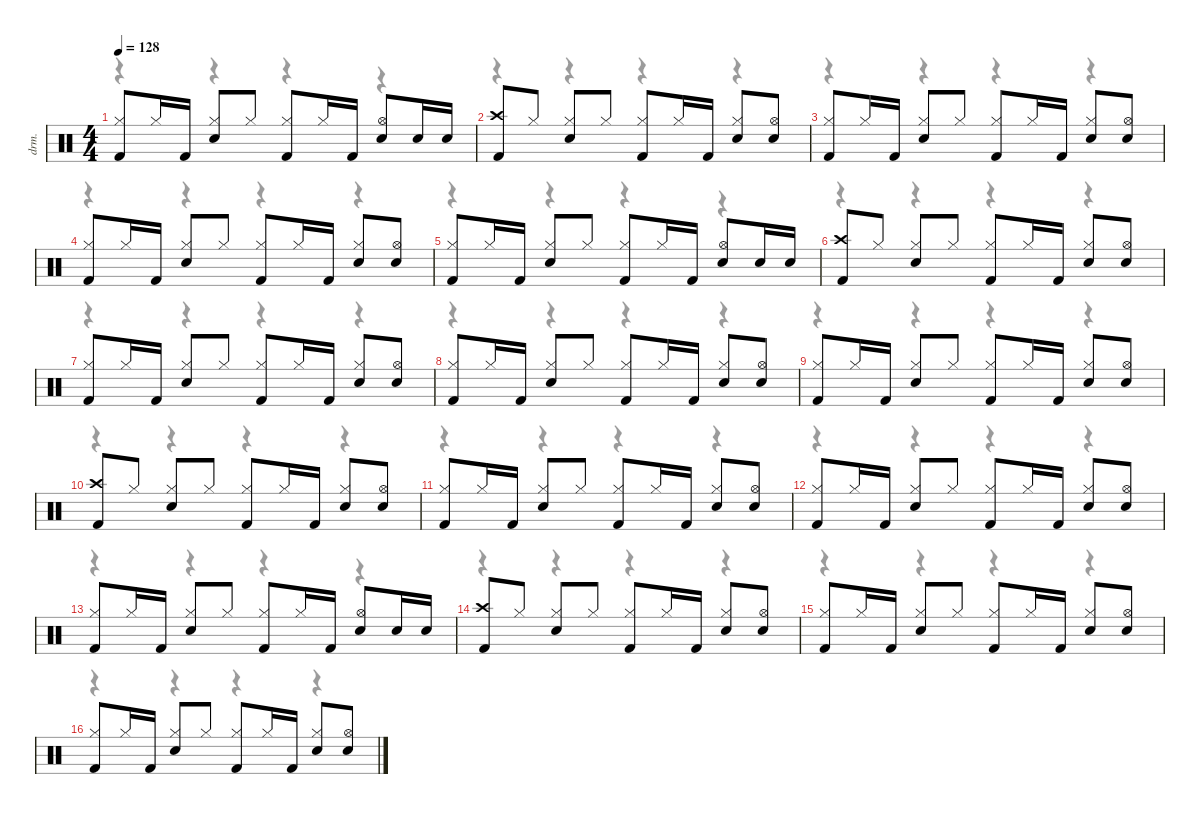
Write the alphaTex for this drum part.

\defaultSystemsLayout 4
\hideDynamics
\bracketExtendMode nobrackets
\track ("Drums" "drm.") {instrument percussion}
\staff {score}
\articulation defaults
\voice
\ts (4 4)
\tempo 128
\clef neutral
\ks c
("Kick (hit) 2" "Hi-Hat (closed)").8{dy fff} "Hi-Hat (closed)".16{dy p} "Kick (hit) 2".16{dy fff} ("Snare (hit) 2" "Hi-Hat (closed)").8 "Hi-Hat (closed)".8{dy p} ("Kick (hit) 2" "Hi-Hat (closed)").8{dy fff} "Hi-Hat (closed)".16{dy p} "Kick (hit) 2".16{dy fff} ("Snare (hit) 2" "Hi-Hat (open)").8 "Snare (hit) 2".16 "Snare (hit) 2".16 |
("Kick (hit) 2" "Crash high (hit)").8 "Hi-Hat (closed)".8{dy p} ("Snare (hit) 2" "Hi-Hat (closed)").8{dy fff} "Hi-Hat (closed)".8{dy p} ("Kick (hit) 2" "Hi-Hat (closed)").8{dy fff} "Hi-Hat (closed)".16{dy p} "Kick (hit) 2".16{dy fff} ("Snare (hit) 2" "Hi-Hat (closed)").8 ("Snare (hit) 2" "Hi-Hat (open)").8 |
("Kick (hit) 2" "Hi-Hat (closed)").8 "Hi-Hat (closed)".16{dy p} "Kick (hit) 2".16{dy fff} ("Snare (hit) 2" "Hi-Hat (closed)").8 "Hi-Hat (closed)".8{dy p} ("Kick (hit) 2" "Hi-Hat (closed)").8{dy fff} "Hi-Hat (closed)".16{dy p} "Kick (hit) 2".16{dy fff} ("Snare (hit) 2" "Hi-Hat (closed)").8 ("Snare (hit) 2" "Hi-Hat (open)").8 |
("Kick (hit) 2" "Hi-Hat (closed)").8 "Hi-Hat (closed)".16{dy p} "Kick (hit) 2".16{dy fff} ("Snare (hit) 2" "Hi-Hat (closed)").8 "Hi-Hat (closed)".8{dy p} ("Kick (hit) 2" "Hi-Hat (closed)").8{dy fff} "Hi-Hat (closed)".16{dy p} "Kick (hit) 2".16{dy fff} ("Snare (hit) 2" "Hi-Hat (closed)").8 ("Snare (hit) 2" "Hi-Hat (open)").8 |
("Kick (hit) 2" "Hi-Hat (closed)").8 "Hi-Hat (closed)".16{dy p} "Kick (hit) 2".16{dy fff} ("Snare (hit) 2" "Hi-Hat (closed)").8 "Hi-Hat (closed)".8{dy p} ("Kick (hit) 2" "Hi-Hat (closed)").8{dy fff} "Hi-Hat (closed)".16{dy p} "Kick (hit) 2".16{dy fff} ("Snare (hit) 2" "Hi-Hat (open)").8 "Snare (hit) 2".16 "Snare (hit) 2".16 |
("Kick (hit) 2" "Crash high (hit)").8 "Hi-Hat (closed)".8{dy p} ("Snare (hit) 2" "Hi-Hat (closed)").8{dy fff} "Hi-Hat (closed)".8{dy p} ("Kick (hit) 2" "Hi-Hat (closed)").8{dy fff} "Hi-Hat (closed)".16{dy p} "Kick (hit) 2".16{dy fff} ("Snare (hit) 2" "Hi-Hat (closed)").8 ("Snare (hit) 2" "Hi-Hat (open)").8 |
("Kick (hit) 2" "Hi-Hat (closed)").8 "Hi-Hat (closed)".16{dy p} "Kick (hit) 2".16{dy fff} ("Snare (hit) 2" "Hi-Hat (closed)").8 "Hi-Hat (closed)".8{dy p} ("Kick (hit) 2" "Hi-Hat (closed)").8{dy fff} "Hi-Hat (closed)".16{dy p} "Kick (hit) 2".16{dy fff} ("Snare (hit) 2" "Hi-Hat (closed)").8 ("Snare (hit) 2" "Hi-Hat (open)").8 |
("Kick (hit) 2" "Hi-Hat (closed)").8 "Hi-Hat (closed)".16{dy p} "Kick (hit) 2".16{dy fff} ("Snare (hit) 2" "Hi-Hat (closed)").8 "Hi-Hat (closed)".8{dy p} ("Kick (hit) 2" "Hi-Hat (closed)").8{dy fff} "Hi-Hat (closed)".16{dy p} "Kick (hit) 2".16{dy fff} ("Snare (hit) 2" "Hi-Hat (closed)").8 ("Snare (hit) 2" "Hi-Hat (open)").8 |
("Kick (hit) 2" "Hi-Hat (closed)").8 "Hi-Hat (closed)".16{dy p} "Kick (hit) 2".16{dy fff} ("Snare (hit) 2" "Hi-Hat (closed)").8 "Hi-Hat (closed)".8{dy p} ("Kick (hit) 2" "Hi-Hat (closed)").8{dy fff} "Hi-Hat (closed)".16{dy p} "Kick (hit) 2".16{dy fff} ("Snare (hit) 2" "Hi-Hat (closed)").8 ("Snare (hit) 2" "Hi-Hat (open)").8 |
("Kick (hit) 2" "Crash high (hit)").8 "Hi-Hat (closed)".8{dy p} ("Snare (hit) 2" "Hi-Hat (closed)").8{dy fff} "Hi-Hat (closed)".8{dy p} ("Kick (hit) 2" "Hi-Hat (closed)").8{dy fff} "Hi-Hat (closed)".16{dy p} "Kick (hit) 2".16{dy fff} ("Snare (hit) 2" "Hi-Hat (closed)").8 ("Snare (hit) 2" "Hi-Hat (open)").8 |
("Kick (hit) 2" "Hi-Hat (closed)").8 "Hi-Hat (closed)".16{dy p} "Kick (hit) 2".16{dy fff} ("Snare (hit) 2" "Hi-Hat (closed)").8 "Hi-Hat (closed)".8{dy p} ("Kick (hit) 2" "Hi-Hat (closed)").8{dy fff} "Hi-Hat (closed)".16{dy p} "Kick (hit) 2".16{dy fff} ("Snare (hit) 2" "Hi-Hat (closed)").8 ("Snare (hit) 2" "Hi-Hat (open)").8 |
("Kick (hit) 2" "Hi-Hat (closed)").8 "Hi-Hat (closed)".16{dy p} "Kick (hit) 2".16{dy fff} ("Snare (hit) 2" "Hi-Hat (closed)").8 "Hi-Hat (closed)".8{dy p} ("Kick (hit) 2" "Hi-Hat (closed)").8{dy fff} "Hi-Hat (closed)".16{dy p} "Kick (hit) 2".16{dy fff} ("Snare (hit) 2" "Hi-Hat (closed)").8 ("Snare (hit) 2" "Hi-Hat (open)").8 |
("Kick (hit) 2" "Hi-Hat (closed)").8 "Hi-Hat (closed)".16{dy p} "Kick (hit) 2".16{dy fff} ("Snare (hit) 2" "Hi-Hat (closed)").8 "Hi-Hat (closed)".8{dy p} ("Kick (hit) 2" "Hi-Hat (closed)").8{dy fff} "Hi-Hat (closed)".16{dy p} "Kick (hit) 2".16{dy fff} ("Snare (hit) 2" "Hi-Hat (open)").8 "Snare (hit) 2".16 "Snare (hit) 2".16 |
("Kick (hit) 2" "Crash high (hit)").8 "Hi-Hat (closed)".8{dy p} ("Snare (hit) 2" "Hi-Hat (closed)").8{dy fff} "Hi-Hat (closed)".8{dy p} ("Kick (hit) 2" "Hi-Hat (closed)").8{dy fff} "Hi-Hat (closed)".16{dy p} "Kick (hit) 2".16{dy fff} ("Snare (hit) 2" "Hi-Hat (closed)").8 ("Snare (hit) 2" "Hi-Hat (open)").8 |
("Kick (hit) 2" "Hi-Hat (closed)").8 "Hi-Hat (closed)".16{dy p} "Kick (hit) 2".16{dy fff} ("Snare (hit) 2" "Hi-Hat (closed)").8 "Hi-Hat (closed)".8{dy p} ("Kick (hit) 2" "Hi-Hat (closed)").8{dy fff} "Hi-Hat (closed)".16{dy p} "Kick (hit) 2".16{dy fff} ("Snare (hit) 2" "Hi-Hat (closed)").8 ("Snare (hit) 2" "Hi-Hat (open)").8 |
("Kick (hit) 2" "Hi-Hat (closed)").8 "Hi-Hat (closed)".16{dy p} "Kick (hit) 2".16{dy fff} ("Snare (hit) 2" "Hi-Hat (closed)").8 "Hi-Hat (closed)".8{dy p} ("Kick (hit) 2" "Hi-Hat (closed)").8{dy fff} "Hi-Hat (closed)".16{dy p} "Kick (hit) 2".16{dy fff} ("Snare (hit) 2" "Hi-Hat (closed)").8 ("Snare (hit) 2" "Hi-Hat (open)").8
\voice
\clef neutral
\ottava regular
\simile none
\ks c
r.4{dy mf} r.4 r.4 r.4 |
r.4 r.4 r.4 r.4 |
r.4 r.4 r.4 r.4 |
r.4 r.4 r.4 r.4 |
r.4 r.4 r.4 r.4 |
r.4 r.4 r.4 r.4 |
r.4 r.4 r.4 r.4 |
r.4 r.4 r.4 r.4 |
r.4 r.4 r.4 r.4 |
r.4 r.4 r.4 r.4 |
r.4 r.4 r.4 r.4 |
r.4 r.4 r.4 r.4 |
r.4 r.4 r.4 r.4 |
r.4 r.4 r.4 r.4 |
r.4 r.4 r.4 r.4 |
r.4 r.4 r.4 r.4
